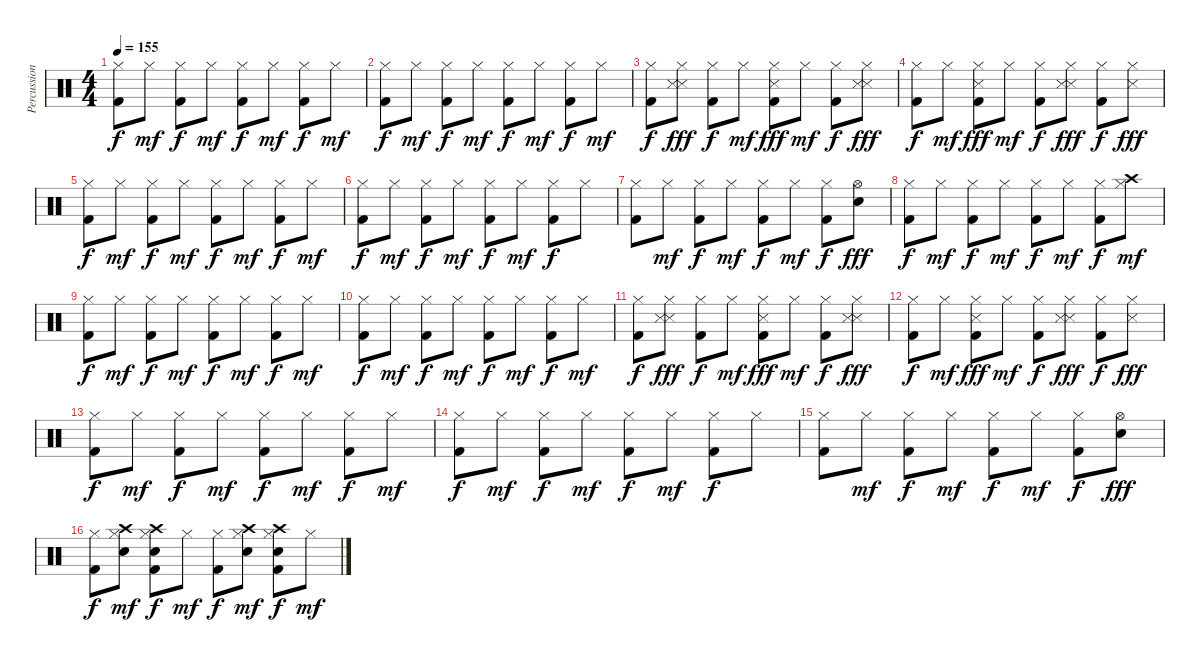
\track ("Percussion" "Percussion") {instrument percussion}
\staff {score}
\articulation defaults
\ts (4 4)
\tempo 155
\clef neutral
\ks c
("Hi-Hat (closed)" "Kick (hit) 2").8{dy f} "Hi-Hat (closed)".8{dy mf} ("Hi-Hat (closed)" "Kick (hit) 2").8{dy f} "Hi-Hat (closed)".8{dy mf} ("Hi-Hat (closed)" "Kick (hit) 2").8{dy f} "Hi-Hat (closed)".8{dy mf} ("Hi-Hat (closed)" "Kick (hit) 2").8{dy f} "Hi-Hat (closed)".8{dy mf} |
("Hi-Hat (closed)" "Kick (hit) 2").8{dy f} "Hi-Hat (closed)".8{dy mf} ("Hi-Hat (closed)" "Kick (hit) 2").8{dy f} "Hi-Hat (closed)".8{dy mf} ("Hi-Hat (closed)" "Kick (hit) 2").8{dy f} "Hi-Hat (closed)".8{dy mf} ("Hi-Hat (closed)" "Kick (hit) 2").8{dy f} "Hi-Hat (closed)".8{dy mf} |
("Hi-Hat (closed)" "Kick (hit) 2").8{dy f} ("Hi-Hat (closed)" "Snare (side stick) 3" "Snare (side stick) 3").8{dy fff} ("Hi-Hat (closed)" "Kick (hit) 2").8{dy f} "Hi-Hat (closed)".8{dy mf} ("Hi-Hat (closed)" "Snare (side stick) 3" "Kick (hit) 2").8{dy fff} "Hi-Hat (closed)".8{dy mf} ("Hi-Hat (closed)" "Kick (hit) 2").8{dy f} ("Hi-Hat (closed)" "Snare (side stick) 3" "Snare (side stick) 3").8{dy fff} |
("Hi-Hat (closed)" "Kick (hit) 2").8{dy f} "Hi-Hat (closed)".8{dy mf} ("Hi-Hat (closed)" "Snare (side stick) 3" "Kick (hit) 2").8{dy fff} "Hi-Hat (closed)".8{dy mf} ("Hi-Hat (closed)" "Kick (hit) 2").8{dy f} ("Hi-Hat (closed)" "Snare (side stick) 3" "Snare (side stick) 3").8{dy fff} ("Hi-Hat (closed)" "Kick (hit) 2").8{dy f} ("Hi-Hat (closed)" "Snare (side stick) 3").8{dy fff} |
("Hi-Hat (closed)" "Kick (hit) 2").8{dy f} "Hi-Hat (closed)".8{dy mf} ("Hi-Hat (closed)" "Kick (hit) 2").8{dy f} "Hi-Hat (closed)".8{dy mf} ("Hi-Hat (closed)" "Kick (hit) 2").8{dy f} "Hi-Hat (closed)".8{dy mf} ("Hi-Hat (closed)" "Kick (hit) 2").8{dy f} "Hi-Hat (closed)".8{dy mf} |
("Hi-Hat (closed)" "Kick (hit) 2").8{dy f} "Hi-Hat (closed)".8{dy mf} ("Hi-Hat (closed)" "Kick (hit) 2").8{dy f} "Hi-Hat (closed)".8{dy mf} ("Hi-Hat (closed)" "Kick (hit) 2").8{dy f} "Hi-Hat (closed)".8{dy mf} ("Hi-Hat (closed)" "Kick (hit) 2").8{dy f} "Hi-Hat (closed)".8 |
("Hi-Hat (closed)" "Kick (hit) 2").8 "Hi-Hat (closed)".8{dy mf} ("Hi-Hat (closed)" "Kick (hit) 2").8{dy f} "Hi-Hat (closed)".8{dy mf} ("Hi-Hat (closed)" "Kick (hit) 2").8{dy f} "Hi-Hat (closed)".8{dy mf} ("Hi-Hat (closed)" "Kick (hit) 2").8{dy f} ("Hi-Hat (open)" "Snare (hit) 2").8{dy fff} |
("Hi-Hat (closed)" "Kick (hit) 2").8{dy f} "Hi-Hat (closed)".8{dy mf} ("Hi-Hat (closed)" "Kick (hit) 2").8{dy f} "Hi-Hat (closed)".8{dy mf} ("Hi-Hat (closed)" "Kick (hit) 2").8{dy f} "Hi-Hat (closed)".8{dy mf} ("Hi-Hat (closed)" "Kick (hit) 2").8{dy f} ("Crash high (hit)" "Hi-Hat (closed)").8{dy mf} |
("Hi-Hat (closed)" "Kick (hit) 2").8{dy f} "Hi-Hat (closed)".8{dy mf} ("Hi-Hat (closed)" "Kick (hit) 2").8{dy f} "Hi-Hat (closed)".8{dy mf} ("Hi-Hat (closed)" "Kick (hit) 2").8{dy f} "Hi-Hat (closed)".8{dy mf} ("Hi-Hat (closed)" "Kick (hit) 2").8{dy f} "Hi-Hat (closed)".8{dy mf} |
("Hi-Hat (closed)" "Kick (hit) 2").8{dy f} "Hi-Hat (closed)".8{dy mf} ("Hi-Hat (closed)" "Kick (hit) 2").8{dy f} "Hi-Hat (closed)".8{dy mf} ("Hi-Hat (closed)" "Kick (hit) 2").8{dy f} "Hi-Hat (closed)".8{dy mf} ("Hi-Hat (closed)" "Kick (hit) 2").8{dy f} "Hi-Hat (closed)".8{dy mf} |
("Hi-Hat (closed)" "Kick (hit) 2").8{dy f} ("Hi-Hat (closed)" "Snare (side stick) 3" "Snare (side stick) 3").8{dy fff} ("Hi-Hat (closed)" "Kick (hit) 2").8{dy f} "Hi-Hat (closed)".8{dy mf} ("Hi-Hat (closed)" "Snare (side stick) 3" "Kick (hit) 2").8{dy fff} "Hi-Hat (closed)".8{dy mf} ("Hi-Hat (closed)" "Kick (hit) 2").8{dy f} ("Hi-Hat (closed)" "Snare (side stick) 3" "Snare (side stick) 3").8{dy fff} |
("Hi-Hat (closed)" "Kick (hit) 2").8{dy f} "Hi-Hat (closed)".8{dy mf} ("Hi-Hat (closed)" "Snare (side stick) 3" "Kick (hit) 2").8{dy fff} "Hi-Hat (closed)".8{dy mf} ("Hi-Hat (closed)" "Kick (hit) 2").8{dy f} ("Hi-Hat (closed)" "Snare (side stick) 3" "Snare (side stick) 3").8{dy fff} ("Hi-Hat (closed)" "Kick (hit) 2").8{dy f} ("Hi-Hat (closed)" "Snare (side stick) 3").8{dy fff} |
("Hi-Hat (closed)" "Kick (hit) 2").8{dy f} "Hi-Hat (closed)".8{dy mf} ("Hi-Hat (closed)" "Kick (hit) 2").8{dy f} "Hi-Hat (closed)".8{dy mf} ("Hi-Hat (closed)" "Kick (hit) 2").8{dy f} "Hi-Hat (closed)".8{dy mf} ("Hi-Hat (closed)" "Kick (hit) 2").8{dy f} "Hi-Hat (closed)".8{dy mf} |
("Hi-Hat (closed)" "Kick (hit) 2").8{dy f} "Hi-Hat (closed)".8{dy mf} ("Hi-Hat (closed)" "Kick (hit) 2").8{dy f} "Hi-Hat (closed)".8{dy mf} ("Hi-Hat (closed)" "Kick (hit) 2").8{dy f} "Hi-Hat (closed)".8{dy mf} ("Hi-Hat (closed)" "Kick (hit) 2").8{dy f} "Hi-Hat (closed)".8 |
("Hi-Hat (closed)" "Kick (hit) 2").8 "Hi-Hat (closed)".8{dy mf} ("Hi-Hat (closed)" "Kick (hit) 2").8{dy f} "Hi-Hat (closed)".8{dy mf} ("Hi-Hat (closed)" "Kick (hit) 2").8{dy f} "Hi-Hat (closed)".8{dy mf} ("Hi-Hat (closed)" "Kick (hit) 2").8{dy f} ("Hi-Hat (open)" "Snare (hit) 2").8{dy fff} |
("Hi-Hat (closed)" "Kick (hit) 2").8{dy f} ("Crash high (hit)" "Hi-Hat (closed)" "Snare (hit) 2").8{dy mf} ("Crash high (hit)" "Hi-Hat (closed)" "Snare (hit) 2" "Kick (hit) 2").8{dy f} "Hi-Hat (closed)".8{dy mf} ("Hi-Hat (closed)" "Kick (hit) 2").8{dy f} ("Crash high (hit)" "Hi-Hat (closed)" "Snare (hit) 2").8{dy mf} ("Crash high (hit)" "Hi-Hat (closed)" "Snare (hit) 2" "Kick (hit) 2").8{dy f} "Hi-Hat (closed)".8{dy mf}
